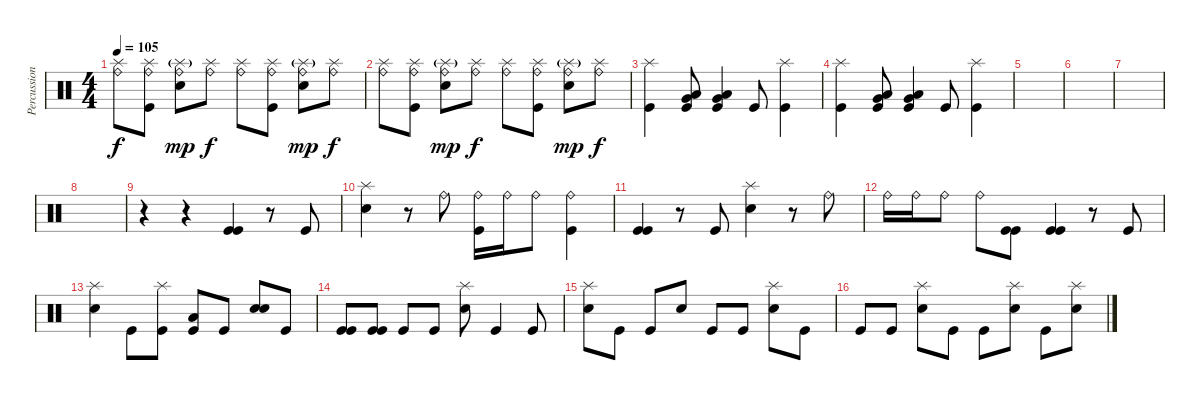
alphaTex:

\track ("Percussion" "Percussion") {instrument percussion}
\staff {score}
\articulation defaults
\ts (4 4)
\tempo 105
\clef neutral
\ks c
("Ride (bell)" "Splash (hit)").8{dy f} ("Kick (hit)" "Ride (bell)" "Splash (hit)").8 ("Snare (hit) 2" "Ride (bell)" "Splash (hit)"{g}).8{dy mp} ("Ride (bell)" "Splash (hit)").8{dy f} ("Ride (bell)" "Splash (hit)").8 ("Kick (hit)" "Ride (bell)" "Splash (hit)").8 ("Snare (hit) 2" "Ride (bell)" "Splash (hit)"{g}).8{dy mp} ("Ride (bell)" "Splash (hit)").8{dy f} |
("Ride (bell)" "Splash (hit)").8 ("Kick (hit)" "Ride (bell)" "Splash (hit)").8 ("Snare (hit) 2" "Ride (bell)" "Splash (hit)"{g}).8{dy mp} ("Ride (bell)" "Splash (hit)").8{dy f} ("Ride (bell)" "Splash (hit)").8 ("Kick (hit)" "Ride (bell)" "Splash (hit)").8 ("Snare (hit) 2" "Ride (bell)" "Splash (hit)"{g}).8{dy mp} ("Ride (bell)" "Splash (hit)").8{dy f} |
("Splash (hit)" "Kick (hit)").4 ("Low Floor Tom (hit)" "Very Low Tom (hit)" "Kick (hit)").8 ("Low Floor Tom (hit)" "Very Low Tom (hit)" "Kick (hit)").4 "Kick (hit)".8 ("Splash (hit)" "Kick (hit)").4 |
("Splash (hit)" "Kick (hit)").4 ("Low Floor Tom (hit)" "Very Low Tom (hit)" "Kick (hit)").8 ("Low Floor Tom (hit)" "Very Low Tom (hit)" "Kick (hit)").4 "Kick (hit)".8 ("Splash (hit)" "Kick (hit)").4 |
|
|
|
|
r.4 r.4 ("Kick (hit)" "Kick (hit)").4 r.8 "Kick (hit)".8 |
("Splash (hit)" "Snare (hit) 2").4 r.8 "Ride (bell)".8 ("Kick (hit)" "Ride (bell)").16 "Ride (bell)".16 "Ride (bell)".8 ("Kick (hit)" "Ride (bell)").4 |
("Kick (hit)" "Kick (hit)").4 r.8 "Kick (hit)".8 ("Snare (hit) 2" "Splash (hit)").4 r.8 "Ride (bell)".8 |
"Ride (bell)".16 "Ride (bell)".16 "Ride (bell)".8 "Ride (bell)".8 ("Kick (hit)" "Kick (hit)").8 ("Kick (hit)" "Kick (hit)").4 r.8 "Kick (hit)".8 |
("Splash (hit)" "Snare (hit) 2").4 "Kick (hit)".8 ("Kick (hit)" "Splash (hit)").8 ("Kick (hit)" "Low Floor Tom (hit)").8 "Kick (hit)".8 ("Snare (hit) 2" "Snare (hit) 2").8 "Kick (hit)".8 |
("Kick (hit)" "Kick (hit)").8 ("Kick (hit)" "Kick (hit)").8 "Kick (hit)".8 "Kick (hit)".8 ("Splash (hit)" "Snare (hit) 2").8 "Kick (hit)".4 "Kick (hit)".8 |
("Splash (hit)" "Snare (hit) 2").8 "Kick (hit)".8 "Kick (hit)".8 "Snare (hit) 2".8 "Kick (hit)".8 "Kick (hit)".8 ("Splash (hit)" "Snare (hit) 2").8 "Kick (hit)".8 |
"Kick (hit)".8 "Kick (hit)".8 ("Splash (hit)" "Snare (hit) 2").8 "Kick (hit)".8 "Kick (hit)".8 ("Splash (hit)" "Snare (hit) 2").8 "Kick (hit)".8 ("Splash (hit)" "Snare (hit) 2").8
